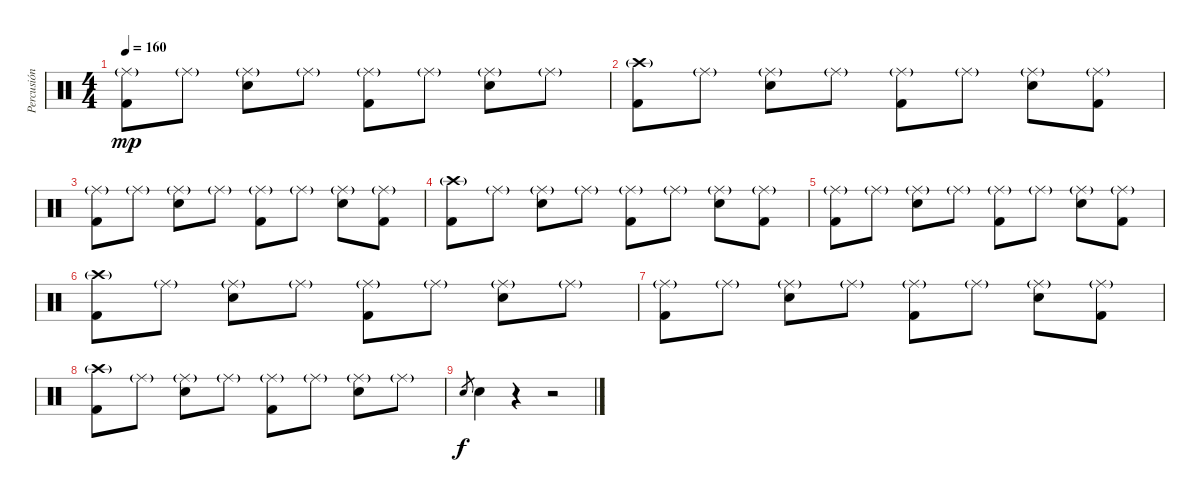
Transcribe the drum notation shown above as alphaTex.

\track ("Percusión" "Percusión") {instrument percussion}
\staff {score}
\articulation defaults
\ts (4 4)
\tempo 160
\clef neutral
\ks c
("Ride (middle)"{g} "Kick (hit) 2").8{dy mp} "Ride (middle)"{g}.8 ("Ride (middle)"{g} "Electric Snare (hit)").8 "Ride (middle)"{g}.8 ("Ride (middle)"{g} "Kick (hit) 2").8 "Ride (middle)"{g}.8 ("Ride (middle)"{g} "Electric Snare (hit)").8 "Ride (middle)"{g}.8 |
("Crash high (hit)"{g} "Kick (hit) 2").8 "Ride (middle)"{g}.8 ("Ride (middle)"{g} "Electric Snare (hit)").8 "Ride (middle)"{g}.8 ("Ride (middle)"{g} "Kick (hit) 2").8 "Ride (middle)"{g}.8 ("Ride (middle)"{g} "Electric Snare (hit)").8 ("Ride (middle)"{g} "Kick (hit) 2").8 |
("Ride (middle)"{g} "Kick (hit) 2").8 "Ride (middle)"{g}.8 ("Ride (middle)"{g} "Electric Snare (hit)").8 "Ride (middle)"{g}.8 ("Ride (middle)"{g} "Kick (hit) 2").8 "Ride (middle)"{g}.8 ("Ride (middle)"{g} "Electric Snare (hit)").8 ("Ride (middle)"{g} "Kick (hit) 2").8 |
("Crash high (hit)"{g} "Kick (hit) 2").8 "Ride (middle)"{g}.8 ("Ride (middle)"{g} "Electric Snare (hit)").8 "Ride (middle)"{g}.8 ("Ride (middle)"{g} "Kick (hit) 2").8 "Ride (middle)"{g}.8 ("Ride (middle)"{g} "Electric Snare (hit)").8 ("Ride (middle)"{g} "Kick (hit) 2").8 |
("Ride (middle)"{g} "Kick (hit) 2").8 "Ride (middle)"{g}.8 ("Ride (middle)"{g} "Electric Snare (hit)").8 "Ride (middle)"{g}.8 ("Ride (middle)"{g} "Kick (hit) 2").8 "Ride (middle)"{g}.8 ("Ride (middle)"{g} "Electric Snare (hit)").8 ("Ride (middle)"{g} "Kick (hit) 2").8 |
("Crash high (hit)"{g} "Kick (hit) 2").8 "Ride (middle)"{g}.8 ("Ride (middle)"{g} "Electric Snare (hit)").8 "Ride (middle)"{g}.8 ("Ride (middle)"{g} "Kick (hit) 2").8 "Ride (middle)"{g}.8 ("Ride (middle)"{g} "Electric Snare (hit)").8 "Ride (middle)"{g}.8 |
("Ride (middle)"{g} "Kick (hit) 2").8 "Ride (middle)"{g}.8 ("Ride (middle)"{g} "Electric Snare (hit)").8 "Ride (middle)"{g}.8 ("Ride (middle)"{g} "Kick (hit) 2").8 "Ride (middle)"{g}.8 ("Ride (middle)"{g} "Electric Snare (hit)").8 ("Ride (middle)"{g} "Kick (hit) 2").8 |
("Crash high (hit)"{g} "Kick (hit) 2").8 "Ride (middle)"{g}.8 ("Ride (middle)"{g} "Electric Snare (hit)").8 "Ride (middle)"{g}.8 ("Ride (middle)"{g} "Kick (hit) 2").8 "Ride (middle)"{g}.8 ("Ride (middle)"{g} "Electric Snare (hit)").8 "Ride (middle)"{g}.8 |
"Electric Snare (hit)".8{gr dy f} "Electric Snare (hit)".4 r.4 r.2
